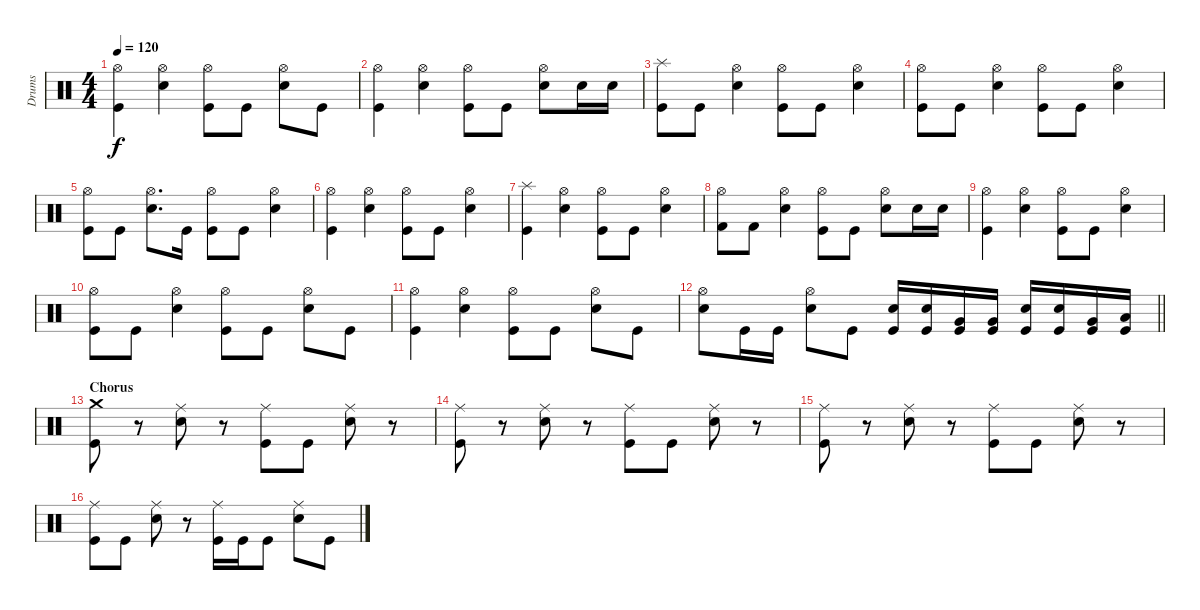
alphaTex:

\track ("Drums" "Drums") {instrument percussion}
\staff {score}
\articulation defaults
\ts (4 4)
\tempo 120
\clef neutral
\ks c
("Kick (hit)" "Hi-Hat (open)").4{dy f} ("Snare (hit) 2" "Hi-Hat (open)").4 ("Kick (hit)" "Hi-Hat (open)").8 "Kick (hit)".8 ("Snare (hit) 2" "Hi-Hat (open)").8 "Kick (hit)".8 |
("Kick (hit)" "Hi-Hat (open)").4 ("Snare (hit) 2" "Hi-Hat (open)").4 ("Kick (hit)" "Hi-Hat (open)").8 "Kick (hit)".8 ("Snare (hit) 2" "Hi-Hat (open)").8 "Snare (hit) 2".16 "Snare (hit) 2".16 |
("Kick (hit)" "Splash (hit)").8 "Kick (hit)".8 ("Hi-Hat (open)" "Snare (hit) 2").4 ("Kick (hit)" "Hi-Hat (open)").8 "Kick (hit)".8 ("Hi-Hat (open)" "Snare (hit) 2").4 |
("Kick (hit)" "Hi-Hat (open)").8 "Kick (hit)".8 ("Hi-Hat (open)" "Snare (hit) 2").4 ("Kick (hit)" "Hi-Hat (open)").8 "Kick (hit)".8 ("Hi-Hat (open)" "Snare (hit) 2").4 |
("Kick (hit)" "Hi-Hat (open)").8 "Kick (hit)".8 ("Hi-Hat (open)" "Snare (hit) 2").8{d} "Kick (hit)".16 ("Kick (hit)" "Hi-Hat (open)").8 "Kick (hit)".8 ("Hi-Hat (open)" "Snare (hit) 2").4 |
("Kick (hit)" "Hi-Hat (open)").4 ("Hi-Hat (open)" "Snare (hit) 2").4 ("Kick (hit)" "Hi-Hat (open)").8 "Kick (hit)".8 ("Hi-Hat (open)" "Snare (hit) 2").4 |
("Kick (hit)" "Splash (hit)").4 ("Snare (hit) 2" "Hi-Hat (open)").4 ("Kick (hit)" "Hi-Hat (open)").8 "Kick (hit)".8 ("Snare (hit) 2" "Hi-Hat (open)").4 |
("Kick (hit) 2" "Hi-Hat (open)").8 "Kick (hit) 2".8 ("Hi-Hat (open)" "Snare (hit) 2").4 ("Kick (hit)" "Hi-Hat (open)").8 "Kick (hit)".8 ("Hi-Hat (open)" "Snare (hit) 2").8 "Snare (hit) 2".16 "Snare (hit) 2".16 |
("Kick (hit)" "Hi-Hat (open)").4 ("Hi-Hat (open)" "Snare (hit) 2").4 ("Kick (hit)" "Hi-Hat (open)").8 "Kick (hit)".8 ("Hi-Hat (open)" "Snare (hit) 2").4 |
("Kick (hit)" "Hi-Hat (open)").8 "Kick (hit)".8 ("Hi-Hat (open)" "Snare (hit) 2").4 ("Kick (hit)" "Hi-Hat (open)").8 "Kick (hit)".8 ("Hi-Hat (open)" "Snare (hit) 2").8 "Kick (hit)".8 |
("Kick (hit)" "Hi-Hat (open)").4 ("Hi-Hat (open)" "Snare (hit) 2").4 ("Kick (hit)" "Hi-Hat (open)").8 "Kick (hit)".8 ("Hi-Hat (open)" "Snare (hit) 2").8 "Kick (hit)".8 |
\barLineRight lightlight
("Hi-Hat (open)" "Snare (hit) 2").8 "Kick (hit)".16 "Kick (hit)".16 ("Hi-Hat (open)" "Snare (hit) 2").8 "Kick (hit)".8 ("Kick (hit)" "Snare (hit) 2").16 ("Kick (hit)" "Snare (hit) 2").16 ("Kick (hit)" "Very Low Tom (hit)").16 ("Kick (hit)" "Very Low Tom (hit)").16 ("Kick (hit)" "Snare (hit) 2").16 ("Kick (hit)" "Snare (hit) 2").16 ("Kick (hit)" "Very Low Tom (hit)").16 ("Kick (hit)" "Low Floor Tom (hit)").16 |
\section ("" "Chorus")
("Kick (hit)" "Crash medium (hit)").8 r.8 ("Snare (hit) 2" "Ride (middle)").8 r.8 ("Kick (hit)" "Ride (middle)").8 "Kick (hit)".8 ("Snare (hit) 2" "Ride (middle)").8 r.8 |
("Kick (hit)" "Ride (middle)").8 r.8 ("Snare (hit) 2" "Ride (middle)").8 r.8 ("Kick (hit)" "Ride (middle)").8 "Kick (hit)".8 ("Snare (hit) 2" "Ride (middle)").8 r.8 |
("Kick (hit)" "Ride (middle)").8 r.8 ("Snare (hit) 2" "Ride (middle)").8 r.8 ("Kick (hit)" "Ride (middle)").8 "Kick (hit)".8 ("Snare (hit) 2" "Ride (middle)").8 r.8 |
("Kick (hit)" "Ride (middle)").8 "Kick (hit)".8 ("Snare (hit) 2" "Ride (middle)").8 r.8 ("Kick (hit)" "Ride (middle)").16 "Kick (hit)".16 "Kick (hit)".8 ("Snare (hit) 2" "Ride (middle)").8 "Kick (hit)".8
